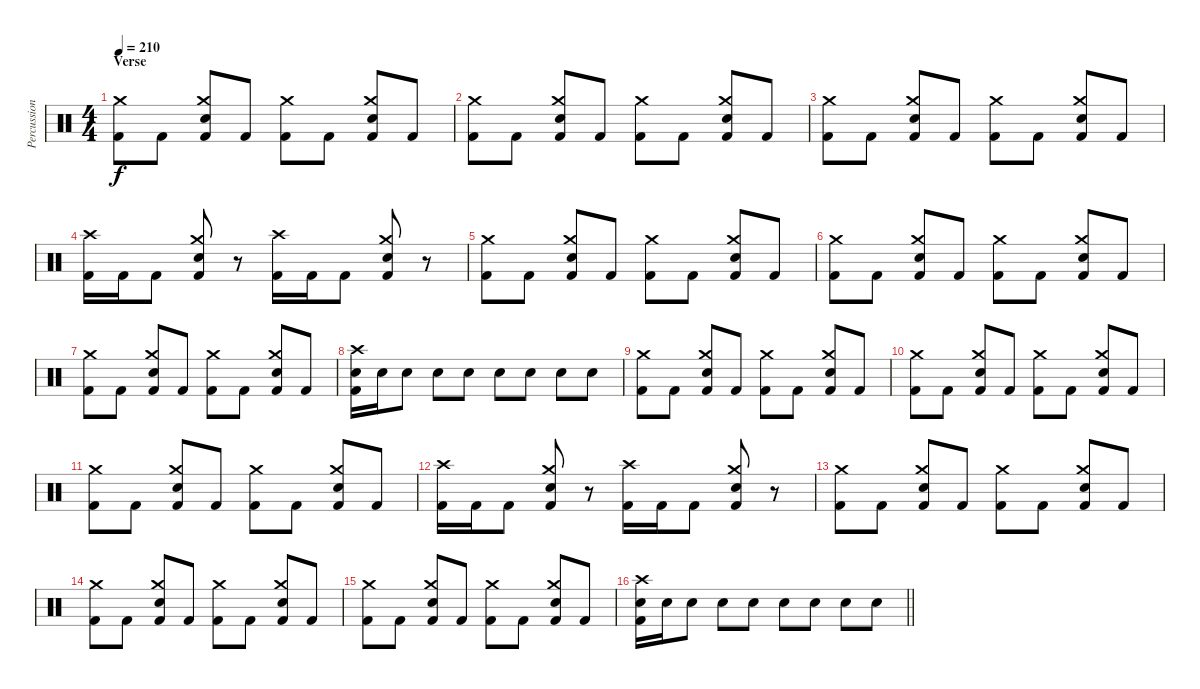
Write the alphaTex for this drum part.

\track ("Percussion" "Percussion") {instrument percussion}
\staff {score}
\articulation defaults
\ts (4 4)
\section ("" "Verse")
\tempo 210
\clef neutral
\ks c
("Kick (hit) 2" "Crash medium (hit)").8{dy f} "Kick (hit) 2".8 ("Kick (hit) 2" "Electric Snare (hit)" "Crash medium (hit)").8 "Kick (hit) 2".8 ("Kick (hit) 2" "Crash medium (hit)").8 "Kick (hit) 2".8 ("Kick (hit) 2" "Electric Snare (hit)" "Crash medium (hit)").8 "Kick (hit) 2".8 |
("Kick (hit) 2" "Crash medium (hit)").8 "Kick (hit) 2".8 ("Kick (hit) 2" "Electric Snare (hit)" "Crash medium (hit)").8 "Kick (hit) 2".8 ("Kick (hit) 2" "Crash medium (hit)").8 "Kick (hit) 2".8 ("Kick (hit) 2" "Electric Snare (hit)" "Crash medium (hit)").8 "Kick (hit) 2".8 |
("Kick (hit) 2" "Crash medium (hit)").8 "Kick (hit) 2".8 ("Kick (hit) 2" "Electric Snare (hit)" "Crash medium (hit)").8 "Kick (hit) 2".8 ("Kick (hit) 2" "Crash medium (hit)").8 "Kick (hit) 2".8 ("Kick (hit) 2" "Electric Snare (hit)" "Crash medium (hit)").8 "Kick (hit) 2".8 |
("Kick (hit) 2" "Crash high (hit)").16 "Kick (hit) 2".16 "Kick (hit) 2".8 ("Kick (hit) 2" "Electric Snare (hit)" "Crash medium (hit)").8 r.8 ("Kick (hit) 2" "Crash high (hit)").16 "Kick (hit) 2".16 "Kick (hit) 2".8 ("Kick (hit) 2" "Electric Snare (hit)" "Crash medium (hit)").8 r.8 |
("Kick (hit) 2" "Crash medium (hit)").8 "Kick (hit) 2".8 ("Kick (hit) 2" "Electric Snare (hit)" "Crash medium (hit)").8 "Kick (hit) 2".8 ("Kick (hit) 2" "Crash medium (hit)").8 "Kick (hit) 2".8 ("Kick (hit) 2" "Electric Snare (hit)" "Crash medium (hit)").8 "Kick (hit) 2".8 |
("Kick (hit) 2" "Crash medium (hit)").8 "Kick (hit) 2".8 ("Kick (hit) 2" "Electric Snare (hit)" "Crash medium (hit)").8 "Kick (hit) 2".8 ("Kick (hit) 2" "Crash medium (hit)").8 "Kick (hit) 2".8 ("Kick (hit) 2" "Electric Snare (hit)" "Crash medium (hit)").8 "Kick (hit) 2".8 |
("Kick (hit) 2" "Crash medium (hit)").8 "Kick (hit) 2".8 ("Kick (hit) 2" "Electric Snare (hit)" "Crash medium (hit)").8 "Kick (hit) 2".8 ("Kick (hit) 2" "Crash medium (hit)").8 "Kick (hit) 2".8 ("Kick (hit) 2" "Electric Snare (hit)" "Crash medium (hit)").8 "Kick (hit) 2".8 |
("Kick (hit) 2" "Electric Snare (hit)" "Crash high (hit)").16 "Electric Snare (hit)".16 "Electric Snare (hit)".8 "Electric Snare (hit)".8 "Electric Snare (hit)".8 "Electric Snare (hit)".8 "Electric Snare (hit)".8 "Electric Snare (hit)".8 "Electric Snare (hit)".8 |
("Kick (hit) 2" "Crash medium (hit)").8 "Kick (hit) 2".8 ("Kick (hit) 2" "Electric Snare (hit)" "Crash medium (hit)").8 "Kick (hit) 2".8 ("Kick (hit) 2" "Crash medium (hit)").8 "Kick (hit) 2".8 ("Kick (hit) 2" "Electric Snare (hit)" "Crash medium (hit)").8 "Kick (hit) 2".8 |
("Kick (hit) 2" "Crash medium (hit)").8 "Kick (hit) 2".8 ("Kick (hit) 2" "Electric Snare (hit)" "Crash medium (hit)").8 "Kick (hit) 2".8 ("Kick (hit) 2" "Crash medium (hit)").8 "Kick (hit) 2".8 ("Kick (hit) 2" "Electric Snare (hit)" "Crash medium (hit)").8 "Kick (hit) 2".8 |
("Kick (hit) 2" "Crash medium (hit)").8 "Kick (hit) 2".8 ("Kick (hit) 2" "Electric Snare (hit)" "Crash medium (hit)").8 "Kick (hit) 2".8 ("Kick (hit) 2" "Crash medium (hit)").8 "Kick (hit) 2".8 ("Kick (hit) 2" "Electric Snare (hit)" "Crash medium (hit)").8 "Kick (hit) 2".8 |
("Kick (hit) 2" "Crash high (hit)").16 "Kick (hit) 2".16 "Kick (hit) 2".8 ("Kick (hit) 2" "Electric Snare (hit)" "Crash medium (hit)").8 r.8 ("Kick (hit) 2" "Crash high (hit)").16 "Kick (hit) 2".16 "Kick (hit) 2".8 ("Kick (hit) 2" "Electric Snare (hit)" "Crash medium (hit)").8 r.8 |
("Kick (hit) 2" "Crash medium (hit)").8 "Kick (hit) 2".8 ("Kick (hit) 2" "Electric Snare (hit)" "Crash medium (hit)").8 "Kick (hit) 2".8 ("Kick (hit) 2" "Crash medium (hit)").8 "Kick (hit) 2".8 ("Kick (hit) 2" "Electric Snare (hit)" "Crash medium (hit)").8 "Kick (hit) 2".8 |
("Kick (hit) 2" "Crash medium (hit)").8 "Kick (hit) 2".8 ("Kick (hit) 2" "Electric Snare (hit)" "Crash medium (hit)").8 "Kick (hit) 2".8 ("Kick (hit) 2" "Crash medium (hit)").8 "Kick (hit) 2".8 ("Kick (hit) 2" "Electric Snare (hit)" "Crash medium (hit)").8 "Kick (hit) 2".8 |
("Kick (hit) 2" "Crash medium (hit)").8 "Kick (hit) 2".8 ("Kick (hit) 2" "Electric Snare (hit)" "Crash medium (hit)").8 "Kick (hit) 2".8 ("Kick (hit) 2" "Crash medium (hit)").8 "Kick (hit) 2".8 ("Kick (hit) 2" "Electric Snare (hit)" "Crash medium (hit)").8 "Kick (hit) 2".8 |
\barLineRight lightlight
("Kick (hit) 2" "Electric Snare (hit)" "Crash high (hit)").16 "Electric Snare (hit)".16 "Electric Snare (hit)".8 "Electric Snare (hit)".8 "Electric Snare (hit)".8 "Electric Snare (hit)".8 "Electric Snare (hit)".8 "Electric Snare (hit)".8 "Electric Snare (hit)".8
